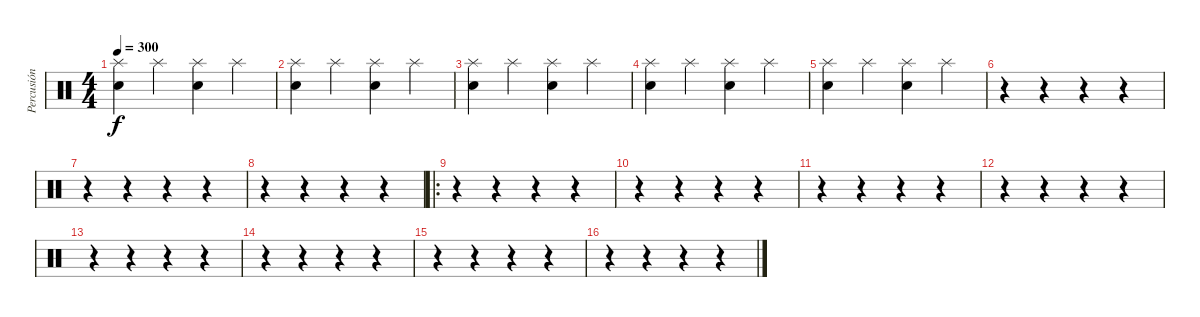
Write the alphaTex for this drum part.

\track ("Percusión" "Percusión") {instrument percussion}
\staff {score}
\articulation defaults
\ts (4 4)
\tempo 300
\clef neutral
\ks c
("Electric Snare (hit)" "Splash (hit)").4{dy f} "Splash (hit)".4 ("Electric Snare (hit)" "Splash (hit)").4 "Splash (hit)".4 |
("Electric Snare (hit)" "Splash (hit)").4 "Splash (hit)".4 ("Electric Snare (hit)" "Splash (hit)").4 "Splash (hit)".4 |
("Electric Snare (hit)" "Splash (hit)").4 "Splash (hit)".4 ("Electric Snare (hit)" "Splash (hit)").4 "Splash (hit)".4 |
("Electric Snare (hit)" "Splash (hit)").4 "Splash (hit)".4 ("Electric Snare (hit)" "Splash (hit)").4 "Splash (hit)".4 |
("Electric Snare (hit)" "Splash (hit)").4 "Splash (hit)".4 ("Electric Snare (hit)" "Splash (hit)").4 "Splash (hit)".4 |
r.4 r.4 r.4 r.4 |
r.4 r.4 r.4 r.4 |
r.4 r.4 r.4 r.4 |
\ro
r.4 r.4 r.4 r.4 |
r.4 r.4 r.4 r.4 |
r.4 r.4 r.4 r.4 |
r.4 r.4 r.4 r.4 |
r.4 r.4 r.4 r.4 |
r.4 r.4 r.4 r.4 |
r.4 r.4 r.4 r.4 |
r.4 r.4 r.4 r.4
